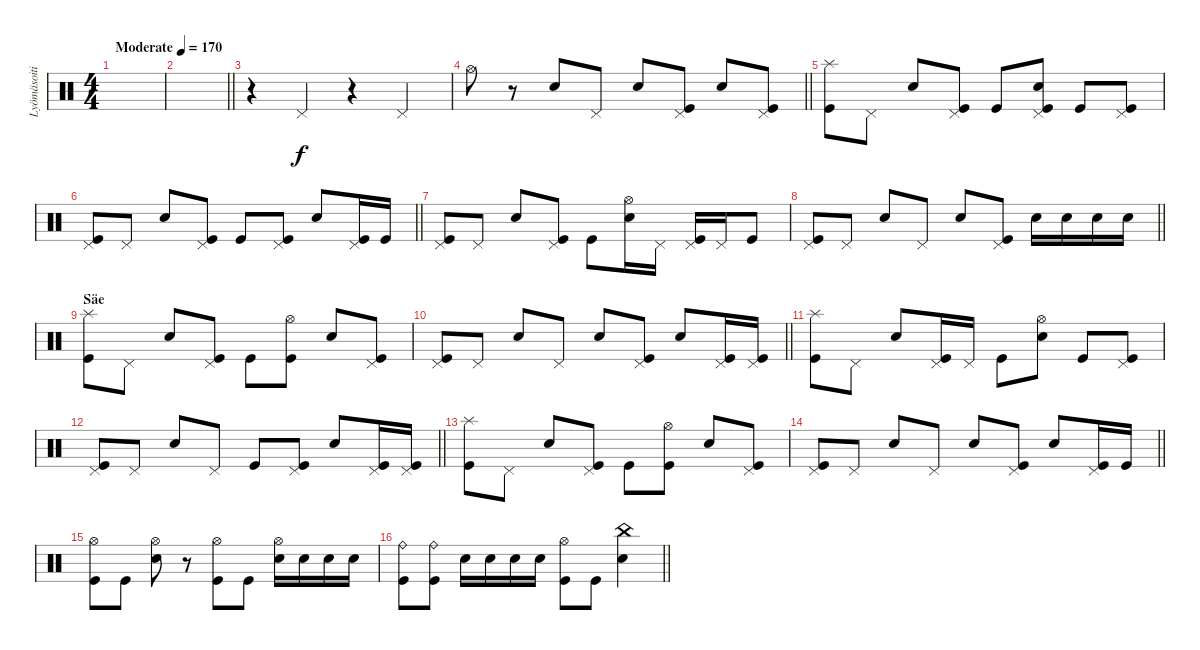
\track ("Lyömäsoitin" "Lyömäsoiti") {instrument percussion}
\staff {score}
\articulation defaults
\ts (4 4)
\tempo (170 "Moderate")
\clef neutral
\ks c
|
\barLineRight lightlight
|
r.4 "Pedal Hi-Hat (hit)".4 r.4 "Pedal Hi-Hat (hit)".4 |
\barLineRight lightlight "Hi-Hat (open)".8
r.8 "Snare (hit) 2".8 "Pedal Hi-Hat (hit)".8 "Snare (hit) 2".8 ("Pedal Hi-Hat (hit)" "Kick (hit)").8 "Snare (hit) 2".8 ("Pedal Hi-Hat (hit)" "Kick (hit)").8 |
("Splash (hit)" "Kick (hit)").8 "Pedal Hi-Hat (hit)".8 "Snare (hit) 2".8 ("Pedal Hi-Hat (hit)" "Kick (hit)").8 "Kick (hit)".8 ("Snare (hit) 2" "Pedal Hi-Hat (hit)" "Kick (hit)").8 "Kick (hit)".8 ("Pedal Hi-Hat (hit)" "Kick (hit)").8 |
\barLineRight lightlight
("Pedal Hi-Hat (hit)" "Kick (hit)").8 "Pedal Hi-Hat (hit)".8 "Snare (hit) 2".8 ("Pedal Hi-Hat (hit)" "Kick (hit)").8 "Kick (hit)".8 ("Pedal Hi-Hat (hit)" "Kick (hit)").8 "Snare (hit) 2".8 ("Pedal Hi-Hat (hit)" "Kick (hit)").16 "Kick (hit)".16 |
("Pedal Hi-Hat (hit)" "Kick (hit)").8 "Pedal Hi-Hat (hit)".8 "Snare (hit) 2".8 ("Pedal Hi-Hat (hit)" "Kick (hit)").8 "Kick (hit)".8 ("Snare (hit) 2" "Hi-Hat (open)").16 "Pedal Hi-Hat (hit)".16 ("Pedal Hi-Hat (hit)" "Kick (hit)").16 "Pedal Hi-Hat (hit)".16 "Kick (hit)".8 |
\barLineRight lightlight
("Pedal Hi-Hat (hit)" "Kick (hit)").8 "Pedal Hi-Hat (hit)".8 "Snare (hit) 2".8 "Pedal Hi-Hat (hit)".8 "Snare (hit) 2".8 ("Pedal Hi-Hat (hit)" "Kick (hit)").8 "Snare (hit) 2".16 "Snare (hit) 2".16 "Snare (hit) 2".16 "Snare (hit) 2".16 |
\section ("" "Säe")
("Splash (hit)" "Kick (hit)").8 "Pedal Hi-Hat (hit)".8 "Snare (hit) 2".8 ("Pedal Hi-Hat (hit)" "Kick (hit)").8 "Kick (hit)".8 ("Hi-Hat (open)" "Kick (hit)").8 "Snare (hit) 2".8 ("Pedal Hi-Hat (hit)" "Kick (hit)").8 |
\barLineRight lightlight
("Pedal Hi-Hat (hit)" "Kick (hit)").8 "Pedal Hi-Hat (hit)".8 "Snare (hit) 2".8 "Pedal Hi-Hat (hit)".8 "Snare (hit) 2".8 ("Pedal Hi-Hat (hit)" "Kick (hit)").8 "Snare (hit) 2".8 ("Pedal Hi-Hat (hit)" "Kick (hit)").16 ("Pedal Hi-Hat (hit)" "Kick (hit)").16 |
("Splash (hit)" "Kick (hit)").8 "Pedal Hi-Hat (hit)".8 "Snare (hit) 2".8 ("Pedal Hi-Hat (hit)" "Kick (hit)").16 "Pedal Hi-Hat (hit)".16 "Kick (hit)".8 ("Snare (hit) 2" "Hi-Hat (open)").8 "Kick (hit)".8 ("Pedal Hi-Hat (hit)" "Kick (hit)").8 |
\barLineRight lightlight
("Pedal Hi-Hat (hit)" "Kick (hit)").8 "Pedal Hi-Hat (hit)".8 "Snare (hit) 2".8 "Pedal Hi-Hat (hit)".8 "Kick (hit)".8 ("Pedal Hi-Hat (hit)" "Kick (hit)").8 "Snare (hit) 2".8 ("Pedal Hi-Hat (hit)" "Kick (hit)").16 ("Pedal Hi-Hat (hit)" "Kick (hit)").16 |
("Splash (hit)" "Kick (hit)").8 "Pedal Hi-Hat (hit)".8 "Snare (hit) 2".8 ("Pedal Hi-Hat (hit)" "Kick (hit)").8 "Kick (hit)".8 ("Hi-Hat (open)" "Kick (hit)").8 "Snare (hit) 2".8 ("Pedal Hi-Hat (hit)" "Kick (hit)").8 |
\barLineRight lightlight
("Pedal Hi-Hat (hit)" "Kick (hit)").8 "Pedal Hi-Hat (hit)".8 "Snare (hit) 2".8 "Pedal Hi-Hat (hit)".8 "Snare (hit) 2".8 ("Pedal Hi-Hat (hit)" "Kick (hit)").8 "Snare (hit) 2".8 ("Pedal Hi-Hat (hit)" "Kick (hit)").16 "Kick (hit)".16 |
("Hi-Hat (open)" "Kick (hit)").8 "Kick (hit)".8 ("Hi-Hat (open)" "Snare (hit) 2").8 r.8 ("Hi-Hat (open)" "Kick (hit)").8 "Kick (hit)".8 ("Hi-Hat (open)" "Snare (hit) 2").16 "Snare (hit) 2".16 "Snare (hit) 2".16 "Snare (hit) 2".16 |
\barLineRight lightlight
("Ride (bell)" "Kick (hit)").8 ("Ride (bell)" "Kick (hit)").8 "Snare (hit) 2".16 "Snare (hit) 2".16 "Snare (hit) 2".16 "Snare (hit) 2".16 ("Hi-Hat (open)" "Kick (hit)").8 "Kick (hit)".8 ("Snare (hit) 2" "China (hit)").4
